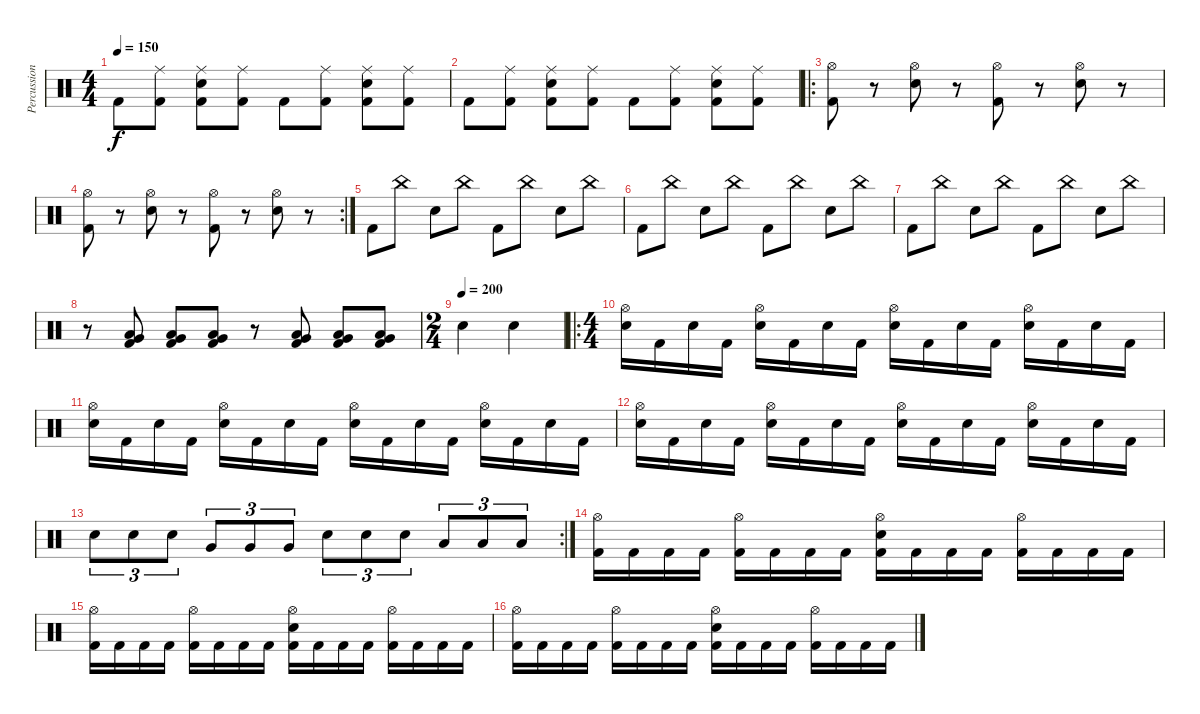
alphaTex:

\track ("Percussions" "Percussion") {instrument percussion}
\staff {score}
\articulation defaults
\ts (4 4)
\tempo 150
\clef neutral
\ks c "Kick (hit) 2".8{dy f}
("Ride (middle)" "Kick (hit) 2").8 ("Ride (middle)" "Snare (hit) 2" "Kick (hit) 2").8 ("Ride (middle)" "Kick (hit) 2").8 "Kick (hit) 2".8 ("Ride (middle)" "Kick (hit) 2").8 ("Ride (middle)" "Snare (hit) 2" "Kick (hit) 2").8 ("Ride (middle)" "Kick (hit) 2").8 |
"Kick (hit) 2".8 ("Ride (middle)" "Kick (hit) 2").8 ("Ride (middle)" "Snare (hit) 2" "Kick (hit) 2").8 ("Ride (middle)" "Kick (hit) 2").8 "Kick (hit) 2".8 ("Ride (middle)" "Kick (hit) 2").8 ("Ride (middle)" "Snare (hit) 2" "Kick (hit) 2").8 ("Ride (middle)" "Kick (hit) 2").8 |
\ro
("Hi-Hat (open)" "Kick (hit) 2").8 r.8 ("Hi-Hat (open)" "Snare (hit) 2").8 r.8 ("Hi-Hat (open)" "Kick (hit) 2").8 r.8 ("Hi-Hat (open)" "Snare (hit) 2").8 r.8 |
\rc 2
("Hi-Hat (open)" "Kick (hit) 2").8 r.8 ("Hi-Hat (open)" "Snare (hit) 2").8 r.8 ("Hi-Hat (open)" "Kick (hit) 2").8 r.8 ("Hi-Hat (open)" "Snare (hit) 2").8 r.8 |
"Kick (hit) 2".8 "China (hit)".8 "Snare (hit) 2".8 "China (hit)".8 "Kick (hit) 2".8 "China (hit)".8 "Snare (hit) 2".8 "China (hit)".8 |
"Kick (hit) 2".8 "China (hit)".8 "Snare (hit) 2".8 "China (hit)".8 "Kick (hit) 2".8 "China (hit)".8 "Snare (hit) 2".8 "China (hit)".8 |
"Kick (hit) 2".8 "China (hit)".8 "Snare (hit) 2".8 "China (hit)".8 "Kick (hit) 2".8 "China (hit)".8 "Snare (hit) 2".8 "China (hit)".8 |
r.8 ("Very Low Tom (hit)" "Low Tom (hit)" "Kick (hit) 2").8 ("Very Low Tom (hit)" "Low Tom (hit)" "Kick (hit) 2").8 ("Very Low Tom (hit)" "Low Tom (hit)" "Kick (hit) 2").8 r.8 ("Very Low Tom (hit)" "Low Tom (hit)" "Kick (hit) 2").8 ("Very Low Tom (hit)" "Low Tom (hit)" "Kick (hit) 2").8 ("Very Low Tom (hit)" "Low Tom (hit)" "Kick (hit) 2").8 |
\ts (2 4)
\tempo (200)
"Snare (hit) 2".4 "Snare (hit) 2".4 |
\ro
\ts (4 4)
("Hi-Hat (open)" "Snare (hit) 2").16 "Kick (hit) 2".16 "Snare (hit) 2".16 "Kick (hit) 2".16 ("Hi-Hat (open)" "Snare (hit) 2").16 "Kick (hit) 2".16 "Snare (hit) 2".16 "Kick (hit) 2".16 ("Hi-Hat (open)" "Snare (hit) 2").16 "Kick (hit) 2".16 "Snare (hit) 2".16 "Kick (hit) 2".16 ("Hi-Hat (open)" "Snare (hit) 2").16 "Kick (hit) 2".16 "Snare (hit) 2".16 "Kick (hit) 2".16 |
("Hi-Hat (open)" "Snare (hit) 2").16 "Kick (hit) 2".16 "Snare (hit) 2".16 "Kick (hit) 2".16 ("Hi-Hat (open)" "Snare (hit) 2").16 "Kick (hit) 2".16 "Snare (hit) 2".16 "Kick (hit) 2".16 ("Hi-Hat (open)" "Snare (hit) 2").16 "Kick (hit) 2".16 "Snare (hit) 2".16 "Kick (hit) 2".16 ("Hi-Hat (open)" "Snare (hit) 2").16 "Kick (hit) 2".16 "Snare (hit) 2".16 "Kick (hit) 2".16 |
("Hi-Hat (open)" "Snare (hit) 2").16 "Kick (hit) 2".16 "Snare (hit) 2".16 "Kick (hit) 2".16 ("Hi-Hat (open)" "Snare (hit) 2").16 "Kick (hit) 2".16 "Snare (hit) 2".16 "Kick (hit) 2".16 ("Hi-Hat (open)" "Snare (hit) 2").16 "Kick (hit) 2".16 "Snare (hit) 2".16 "Kick (hit) 2".16 ("Hi-Hat (open)" "Snare (hit) 2").16 "Kick (hit) 2".16 "Snare (hit) 2".16 "Kick (hit) 2".16 |
\rc 2 "Snare (hit) 2".8{tu (3 2)} "Snare (hit) 2".8{tu (3 2)} "Snare (hit) 2".8{tu (3 2)} "Very Low Tom (hit)".8{tu (3 2)} "Very Low Tom (hit)".8{tu (3 2)} "Very Low Tom (hit)".8{tu (3 2)} "Snare (hit) 2".8{tu (3 2)} "Snare (hit) 2".8{tu (3 2)} "Snare (hit) 2".8{tu (3 2)} "Low Tom (hit)".8{tu (3 2)} "Low Tom (hit)".8{tu (3 2)} "Low Tom (hit)".8{tu (3 2)}
|
("Hi-Hat (open)" "Kick (hit) 2").16 "Kick (hit) 2".16 "Kick (hit) 2".16 "Kick (hit) 2".16 ("Hi-Hat (open)" "Kick (hit) 2").16 "Kick (hit) 2".16 "Kick (hit) 2".16 "Kick (hit) 2".16 ("Hi-Hat (open)" "Snare (hit) 2" "Kick (hit) 2").16 "Kick (hit) 2".16 "Kick (hit) 2".16 "Kick (hit) 2".16 ("Hi-Hat (open)" "Kick (hit) 2").16 "Kick (hit) 2".16 "Kick (hit) 2".16 "Kick (hit) 2".16 |
("Hi-Hat (open)" "Kick (hit) 2").16 "Kick (hit) 2".16 "Kick (hit) 2".16 "Kick (hit) 2".16 ("Hi-Hat (open)" "Kick (hit) 2").16 "Kick (hit) 2".16 "Kick (hit) 2".16 "Kick (hit) 2".16 ("Hi-Hat (open)" "Snare (hit) 2" "Kick (hit) 2").16 "Kick (hit) 2".16 "Kick (hit) 2".16 "Kick (hit) 2".16 ("Hi-Hat (open)" "Kick (hit) 2").16 "Kick (hit) 2".16 "Kick (hit) 2".16 "Kick (hit) 2".16 |
("Hi-Hat (open)" "Kick (hit) 2").16 "Kick (hit) 2".16 "Kick (hit) 2".16 "Kick (hit) 2".16 ("Hi-Hat (open)" "Kick (hit) 2").16 "Kick (hit) 2".16 "Kick (hit) 2".16 "Kick (hit) 2".16 ("Hi-Hat (open)" "Snare (hit) 2" "Kick (hit) 2").16 "Kick (hit) 2".16 "Kick (hit) 2".16 "Kick (hit) 2".16 ("Hi-Hat (open)" "Kick (hit) 2").16 "Kick (hit) 2".16 "Kick (hit) 2".16 "Kick (hit) 2".16
